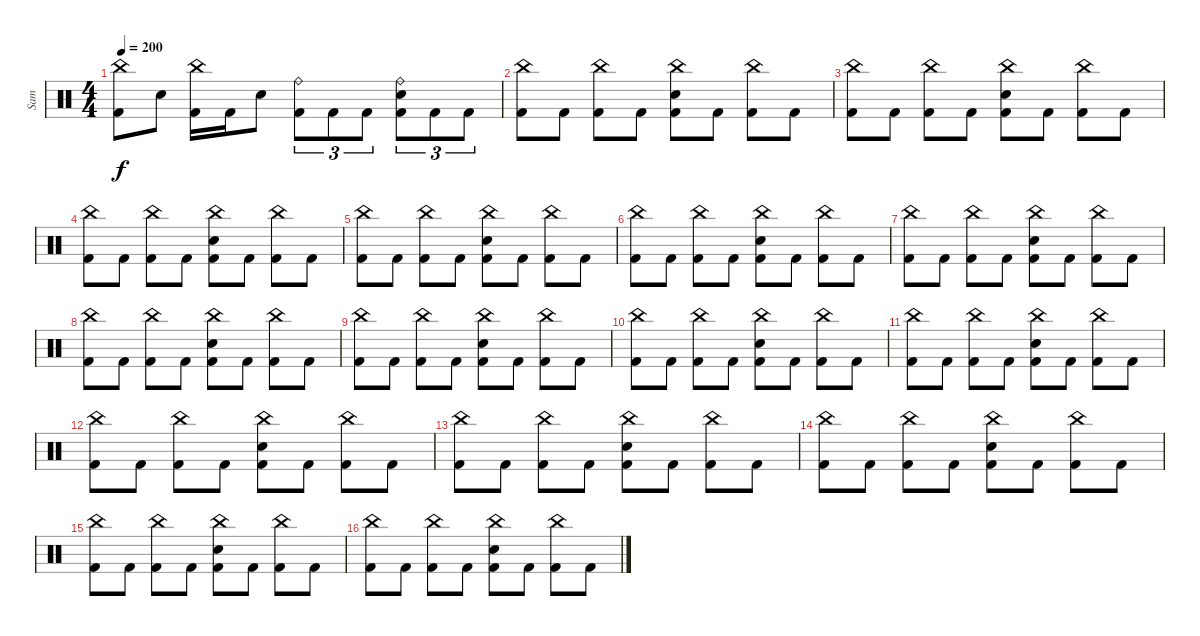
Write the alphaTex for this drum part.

\track ("Sam" "Sam") {instrument percussion}
\staff {score}
\articulation defaults
\ts (4 4)
\tempo 200
\clef neutral
\ks c
("China (hit)" "Kick (hit) 2").8{dy f} "Snare (hit) 2".8 ("China (hit)" "Kick (hit) 2").16 "Kick (hit) 2".16 "Snare (hit) 2".8 ("Ride (bell)" "Kick (hit) 2").8{tu (3 2)} "Kick (hit) 2".8{tu (3 2)} "Kick (hit) 2".8{tu (3 2)} ("Ride (bell)" "Snare (hit) 2" "Kick (hit) 2").8{tu (3 2)} "Kick (hit) 2".8{tu (3 2)} "Kick (hit) 2".8{tu (3 2)} |
("China (hit)" "Kick (hit) 2").8 "Kick (hit) 2".8 ("China (hit)" "Kick (hit) 2").8 "Kick (hit) 2".8 ("China (hit)" "Snare (hit) 2" "Kick (hit) 2").8 "Kick (hit) 2".8 ("China (hit)" "Kick (hit) 2").8 "Kick (hit) 2".8 |
("China (hit)" "Kick (hit) 2").8 "Kick (hit) 2".8 ("China (hit)" "Kick (hit) 2").8 "Kick (hit) 2".8 ("China (hit)" "Snare (hit) 2" "Kick (hit) 2").8 "Kick (hit) 2".8 ("China (hit)" "Kick (hit) 2").8 "Kick (hit) 2".8 |
("China (hit)" "Kick (hit) 2").8 "Kick (hit) 2".8 ("China (hit)" "Kick (hit) 2").8 "Kick (hit) 2".8 ("China (hit)" "Snare (hit) 2" "Kick (hit) 2").8 "Kick (hit) 2".8 ("China (hit)" "Kick (hit) 2").8 "Kick (hit) 2".8 |
("China (hit)" "Kick (hit) 2").8 "Kick (hit) 2".8 ("China (hit)" "Kick (hit) 2").8 "Kick (hit) 2".8 ("China (hit)" "Snare (hit) 2" "Kick (hit) 2").8 "Kick (hit) 2".8 ("China (hit)" "Kick (hit) 2").8 "Kick (hit) 2".8 |
("China (hit)" "Kick (hit) 2").8 "Kick (hit) 2".8 ("China (hit)" "Kick (hit) 2").8 "Kick (hit) 2".8 ("China (hit)" "Snare (hit) 2" "Kick (hit) 2").8 "Kick (hit) 2".8 ("China (hit)" "Kick (hit) 2").8 "Kick (hit) 2".8 |
("China (hit)" "Kick (hit) 2").8 "Kick (hit) 2".8 ("China (hit)" "Kick (hit) 2").8 "Kick (hit) 2".8 ("China (hit)" "Snare (hit) 2" "Kick (hit) 2").8 "Kick (hit) 2".8 ("China (hit)" "Kick (hit) 2").8 "Kick (hit) 2".8 |
("China (hit)" "Kick (hit) 2").8 "Kick (hit) 2".8 ("China (hit)" "Kick (hit) 2").8 "Kick (hit) 2".8 ("China (hit)" "Snare (hit) 2" "Kick (hit) 2").8 "Kick (hit) 2".8 ("China (hit)" "Kick (hit) 2").8 "Kick (hit) 2".8 |
("China (hit)" "Kick (hit) 2").8 "Kick (hit) 2".8 ("China (hit)" "Kick (hit) 2").8 "Kick (hit) 2".8 ("China (hit)" "Snare (hit) 2" "Kick (hit) 2").8 "Kick (hit) 2".8 ("China (hit)" "Kick (hit) 2").8 "Kick (hit) 2".8 |
("China (hit)" "Kick (hit) 2").8 "Kick (hit) 2".8 ("China (hit)" "Kick (hit) 2").8 "Kick (hit) 2".8 ("China (hit)" "Snare (hit) 2" "Kick (hit) 2").8 "Kick (hit) 2".8 ("China (hit)" "Kick (hit) 2").8 "Kick (hit) 2".8 |
("China (hit)" "Kick (hit) 2").8 "Kick (hit) 2".8 ("China (hit)" "Kick (hit) 2").8 "Kick (hit) 2".8 ("China (hit)" "Snare (hit) 2" "Kick (hit) 2").8 "Kick (hit) 2".8 ("China (hit)" "Kick (hit) 2").8 "Kick (hit) 2".8 |
("China (hit)" "Kick (hit) 2").8 "Kick (hit) 2".8 ("China (hit)" "Kick (hit) 2").8 "Kick (hit) 2".8 ("China (hit)" "Snare (hit) 2" "Kick (hit) 2").8 "Kick (hit) 2".8 ("China (hit)" "Kick (hit) 2").8 "Kick (hit) 2".8 |
("China (hit)" "Kick (hit) 2").8 "Kick (hit) 2".8 ("China (hit)" "Kick (hit) 2").8 "Kick (hit) 2".8 ("China (hit)" "Snare (hit) 2" "Kick (hit) 2").8 "Kick (hit) 2".8 ("China (hit)" "Kick (hit) 2").8 "Kick (hit) 2".8 |
("China (hit)" "Kick (hit) 2").8 "Kick (hit) 2".8 ("China (hit)" "Kick (hit) 2").8 "Kick (hit) 2".8 ("China (hit)" "Snare (hit) 2" "Kick (hit) 2").8 "Kick (hit) 2".8 ("China (hit)" "Kick (hit) 2").8 "Kick (hit) 2".8 |
("China (hit)" "Kick (hit) 2").8 "Kick (hit) 2".8 ("China (hit)" "Kick (hit) 2").8 "Kick (hit) 2".8 ("China (hit)" "Snare (hit) 2" "Kick (hit) 2").8 "Kick (hit) 2".8 ("China (hit)" "Kick (hit) 2").8 "Kick (hit) 2".8 |
("China (hit)" "Kick (hit) 2").8 "Kick (hit) 2".8 ("China (hit)" "Kick (hit) 2").8 "Kick (hit) 2".8 ("China (hit)" "Snare (hit) 2" "Kick (hit) 2").8 "Kick (hit) 2".8 ("China (hit)" "Kick (hit) 2").8 "Kick (hit) 2".8
